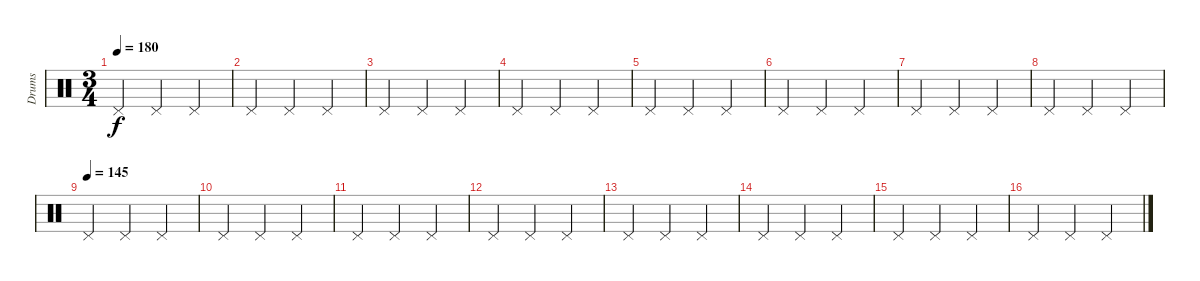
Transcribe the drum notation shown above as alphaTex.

\track ("Drums" "Drums") {instrument percussion}
\staff {score}
\articulation defaults
\ts (3 4)
\tempo 180
\clef neutral
\ks c "Pedal Hi-Hat (hit)".4{dy f} "Pedal Hi-Hat (hit)".4 "Pedal Hi-Hat (hit)".4
|
"Pedal Hi-Hat (hit)".4 "Pedal Hi-Hat (hit)".4 "Pedal Hi-Hat (hit)".4 |
"Pedal Hi-Hat (hit)".4 "Pedal Hi-Hat (hit)".4 "Pedal Hi-Hat (hit)".4 |
"Pedal Hi-Hat (hit)".4 "Pedal Hi-Hat (hit)".4 "Pedal Hi-Hat (hit)".4 |
"Pedal Hi-Hat (hit)".4 "Pedal Hi-Hat (hit)".4 "Pedal Hi-Hat (hit)".4 |
"Pedal Hi-Hat (hit)".4 "Pedal Hi-Hat (hit)".4 "Pedal Hi-Hat (hit)".4 |
"Pedal Hi-Hat (hit)".4 "Pedal Hi-Hat (hit)".4 "Pedal Hi-Hat (hit)".4 |
"Pedal Hi-Hat (hit)".4 "Pedal Hi-Hat (hit)".4 "Pedal Hi-Hat (hit)".4 |
\tempo (145)
"Pedal Hi-Hat (hit)".4 "Pedal Hi-Hat (hit)".4 "Pedal Hi-Hat (hit)".4 |
"Pedal Hi-Hat (hit)".4 "Pedal Hi-Hat (hit)".4 "Pedal Hi-Hat (hit)".4 |
"Pedal Hi-Hat (hit)".4 "Pedal Hi-Hat (hit)".4 "Pedal Hi-Hat (hit)".4 |
"Pedal Hi-Hat (hit)".4 "Pedal Hi-Hat (hit)".4 "Pedal Hi-Hat (hit)".4 |
"Pedal Hi-Hat (hit)".4 "Pedal Hi-Hat (hit)".4 "Pedal Hi-Hat (hit)".4 |
"Pedal Hi-Hat (hit)".4 "Pedal Hi-Hat (hit)".4 "Pedal Hi-Hat (hit)".4 |
"Pedal Hi-Hat (hit)".4 "Pedal Hi-Hat (hit)".4 "Pedal Hi-Hat (hit)".4 |
"Pedal Hi-Hat (hit)".4 "Pedal Hi-Hat (hit)".4 "Pedal Hi-Hat (hit)".4
